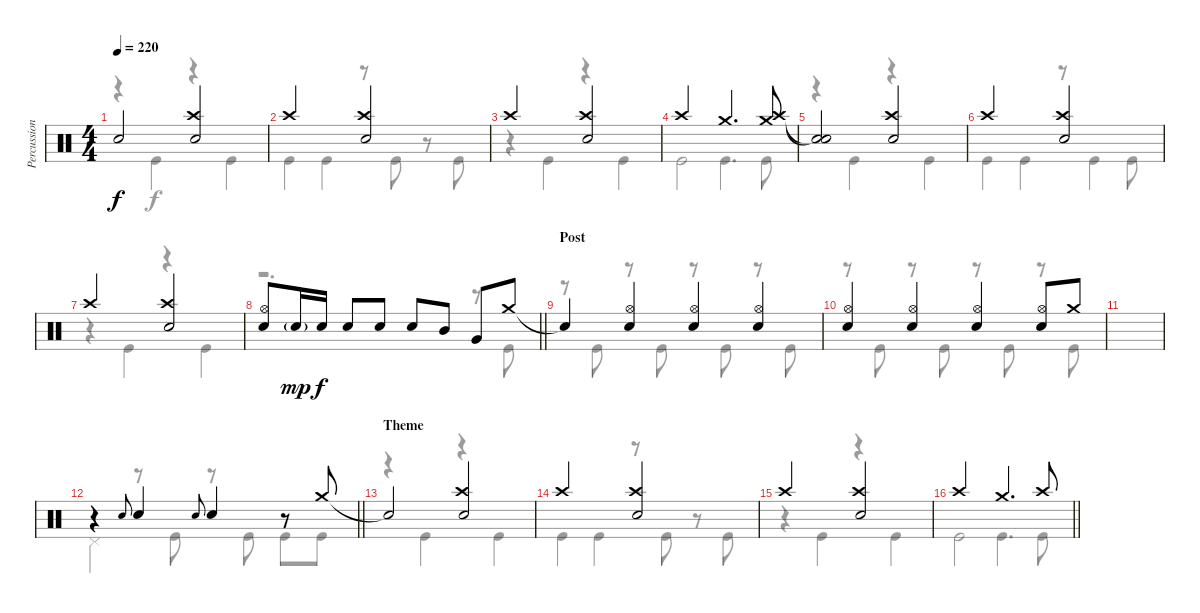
\track ("Percussion" "Percussion") {instrument percussion}
\staff {score}
\articulation defaults
\voice
\ts (4 4)
\tempo 220
\clef neutral
\ks c "Snare (hit)"{t}.2{dy f}
("Crash high (hit)" "Electric Snare (hit)").2 |
"Crash high (hit)".2 ("Crash high (hit)" "Electric Snare (hit)").2 |
"Crash high (hit)".2 ("Crash high (hit)" "Electric Snare (hit)").2 |
"Crash high (hit)".2 "Crash medium (hit)".4{d} ("Crash medium (hit)" "Crash high (hit)").8 |
("Snare (hit)"{t} "Snare (hit)"{t}).2 ("Crash high (hit)" "Electric Snare (hit)").2 |
"Crash high (hit)".2 ("Crash high (hit)" "Electric Snare (hit)").2 |
"Crash high (hit)".2 ("Crash high (hit)" "Electric Snare (hit)").2 |
\barLineRight lightlight
("Hi-Hat (open)" "Electric Snare (hit)").8 "Electric Snare (hit)"{g}.16{dy mp} "Electric Snare (hit)".16{dy f} "Electric Snare (hit)".8 "Electric Snare (hit)".8 "Electric Snare (hit)".8 "Mid Tom (hit)".8 "Very Low Tom (hit)".8 "Crash medium (hit)".8 |
\section ("" "Post")
"Snare (hit)"{t}.4 ("Hi-Hat (open)" "Electric Snare (hit)").4 ("Hi-Hat (open)" "Electric Snare (hit)").4 ("Hi-Hat (open)" "Electric Snare (hit)").4 |
("Hi-Hat (open)" "Electric Snare (hit)").4 ("Hi-Hat (open)" "Electric Snare (hit)").4 ("Hi-Hat (open)" "Electric Snare (hit)").4 ("Hi-Hat (open)" "Electric Snare (hit)").8 "Crash medium (hit)".8 |
|
\barLineRight lightlight
r.4 "Electric Snare (hit)".8{gr onbeat} "Electric Snare (hit)".4 "Electric Snare (hit)".8{gr onbeat} "Electric Snare (hit)".4 r.8 "Crash medium (hit)".8 |
\section ("" "Theme")
"Snare (hit)"{t}.2 ("Crash high (hit)" "Electric Snare (hit)").2 |
"Crash high (hit)".2 ("Crash high (hit)" "Electric Snare (hit)").2 |
"Crash high (hit)".2 ("Crash high (hit)" "Electric Snare (hit)").2 |
\barLineRight lightlight "Crash high (hit)".2 "Crash medium (hit)".4{d} "Crash high (hit)".8
\voice
\clef neutral
\ottava regular
\simile none
\ks c
r.4{dy f} "Kick (hit)".4 r.4 "Kick (hit)".4 |
"Kick (hit)".4 "Kick (hit)".4 r.8 "Kick (hit)".8 r.8 "Kick (hit)".8 |
r.4 "Kick (hit)".4 r.4 "Kick (hit)".4 |
"Kick (hit)".2 "Kick (hit)".4{d} "Kick (hit)".8 |
r.4 "Kick (hit)".4 r.4 "Kick (hit)".4 |
"Kick (hit)".4 "Kick (hit)".4 r.8 "Kick (hit)".4 "Kick (hit)".8 |
r.4 "Kick (hit)".4 r.4 "Kick (hit)".4 |
\barLineRight lightlight
r.2{d} r.8 "Kick (hit)".8 |
r.8 "Kick (hit)".8 r.8 "Kick (hit)".8 r.8 "Kick (hit)".8 r.8 "Kick (hit)".8 |
r.8 "Kick (hit)".8 r.8 "Kick (hit)".8 r.8 "Kick (hit)".8 r.8 "Kick (hit)".8 |
|
\barLineRight lightlight "Pedal Hi-Hat (hit)".4
r.8 "Kick (hit)".8 r.8 "Kick (hit)".8 "Kick (hit)".8 "Kick (hit)".8 |
r.4 "Kick (hit)".4 r.4 "Kick (hit)".4 |
"Kick (hit)".4 "Kick (hit)".4 r.8 "Kick (hit)".8 r.8 "Kick (hit)".8 |
r.4 "Kick (hit)".4 r.4 "Kick (hit)".4 |
\barLineRight lightlight "Kick (hit)".2 "Kick (hit)".4{d} "Kick (hit)".8
